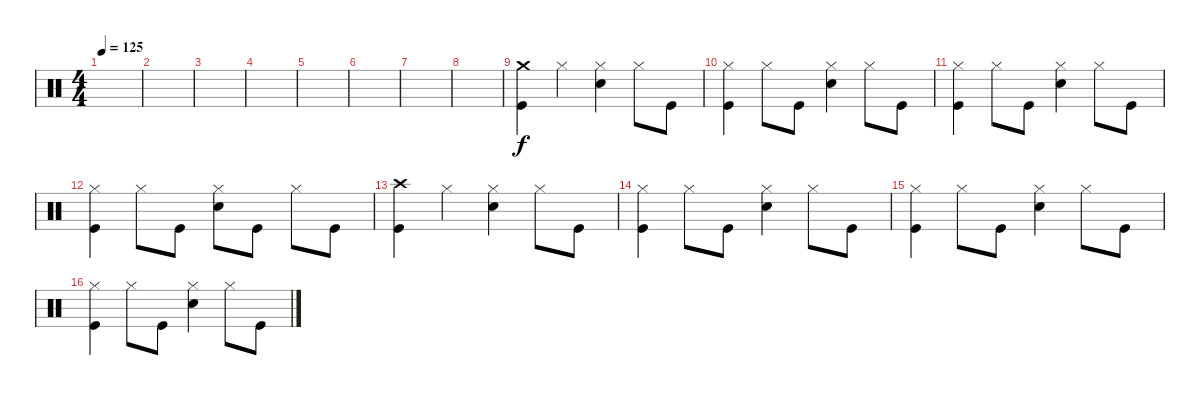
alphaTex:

\track "" {instrument percussion}
\staff {score}
\articulation defaults
\ts (4 4)
\tempo 125
\clef neutral
\ks c
|
|
|
|
|
|
|
|
("Crash medium (hit)" "Kick (hit)").4 "Hi-Hat (closed)".4 ("Hi-Hat (closed)" "Snare (hit) 2").4 "Hi-Hat (closed)".8 "Kick (hit)".8 |
("Hi-Hat (closed)" "Kick (hit)").4 "Hi-Hat (closed)".8 "Kick (hit)".8 ("Hi-Hat (closed)" "Snare (hit) 2").4 "Hi-Hat (closed)".8 "Kick (hit)".8 |
("Hi-Hat (closed)" "Kick (hit)").4 "Hi-Hat (closed)".8 "Kick (hit)".8 ("Hi-Hat (closed)" "Snare (hit) 2").4 "Hi-Hat (closed)".8 "Kick (hit)".8 |
("Hi-Hat (closed)" "Kick (hit)").4 "Hi-Hat (closed)".8 "Kick (hit)".8 ("Hi-Hat (closed)" "Snare (hit) 2").8 "Kick (hit)".8 "Hi-Hat (closed)".8 "Kick (hit)".8 |
("Crash high (hit)" "Kick (hit)").4 "Hi-Hat (closed)".4 ("Hi-Hat (closed)" "Snare (hit) 2").4 "Hi-Hat (closed)".8 "Kick (hit)".8 |
("Hi-Hat (closed)" "Kick (hit)").4 "Hi-Hat (closed)".8 "Kick (hit)".8 ("Hi-Hat (closed)" "Snare (hit) 2").4 "Hi-Hat (closed)".8 "Kick (hit)".8 |
("Hi-Hat (closed)" "Kick (hit)").4 "Hi-Hat (closed)".8 "Kick (hit)".8 ("Hi-Hat (closed)" "Snare (hit) 2").4 "Hi-Hat (closed)".8 "Kick (hit)".8 |
("Hi-Hat (closed)" "Kick (hit)").4 "Hi-Hat (closed)".8 "Kick (hit)".8 ("Hi-Hat (closed)" "Snare (hit) 2").4 "Hi-Hat (closed)".8 "Kick (hit)".8
